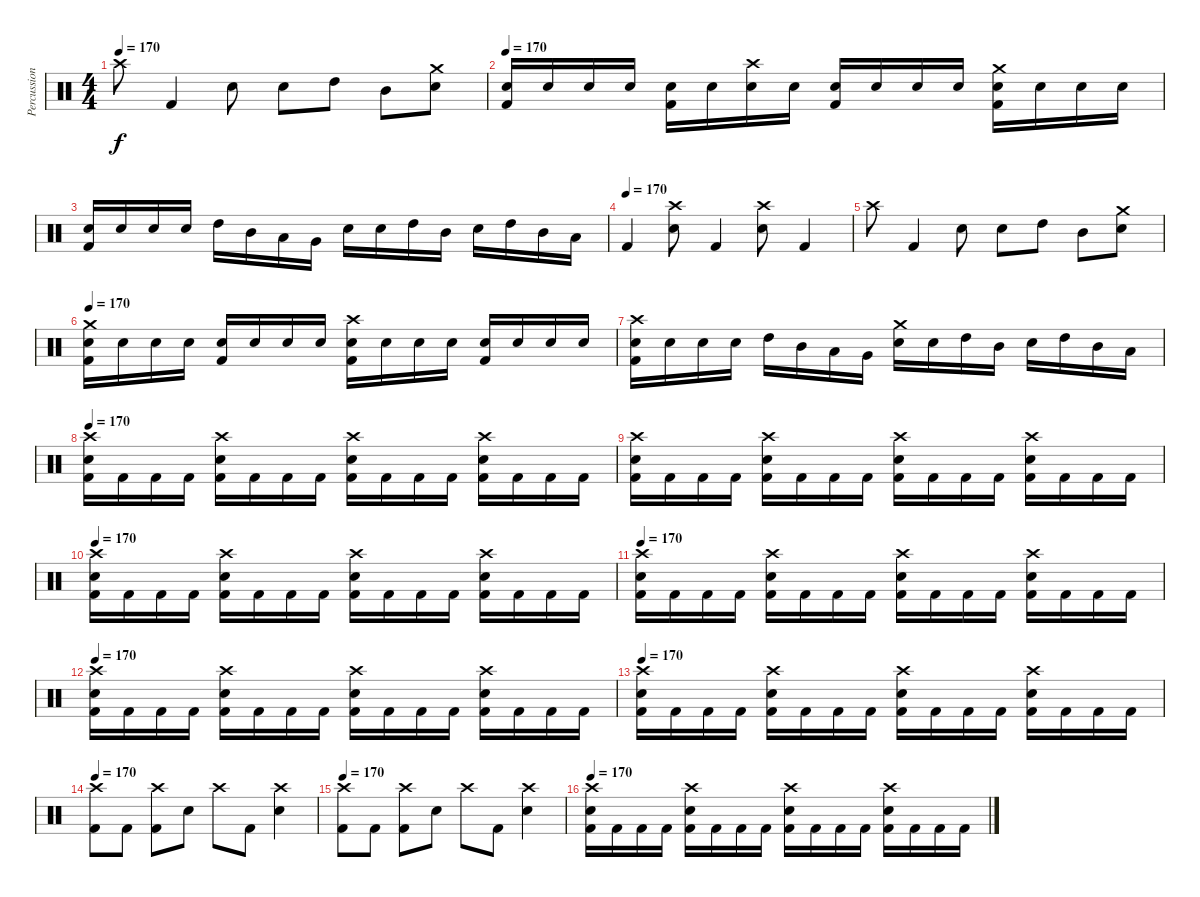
\track ("Percussion" "Percussion") {instrument percussion}
\staff {score}
\articulation defaults
\ts (4 4)
\tempo 170
\clef neutral
\ks c "Crash high (hit)".8{dy f} "Kick (hit) 2".4 "Electric Snare (hit)".8 "Electric Snare (hit)".8 "High Tom (hit)".8 "Mid Tom (hit)".8
("Crash medium (hit)" "Electric Snare (hit)").8 |
\tempo 170
("Electric Snare (hit)" "Kick (hit) 2").16 "Electric Snare (hit)".16 "Electric Snare (hit)".16 "Electric Snare (hit)".16 ("Electric Snare (hit)" "Kick (hit) 2").16 "Electric Snare (hit)".16 ("Crash high (hit)" "Electric Snare (hit)").16 "Electric Snare (hit)".16 ("Electric Snare (hit)" "Kick (hit) 2").16 "Electric Snare (hit)".16 "Electric Snare (hit)".16 "Electric Snare (hit)".16 ("Crash medium (hit)" "Electric Snare (hit)" "Kick (hit) 2").16 "Electric Snare (hit)".16 "Electric Snare (hit)".16 "Electric Snare (hit)".16 |
("Electric Snare (hit)" "Kick (hit) 2").16 "Electric Snare (hit)".16 "Electric Snare (hit)".16 "Electric Snare (hit)".16 "High Tom (hit)".16 "Mid Tom (hit)".16 "Low Tom (hit)".16 "Very Low Tom (hit)".16 "Electric Snare (hit)".16 "Electric Snare (hit)".16 "High Tom (hit)".16 "Mid Tom (hit)".16 "Electric Snare (hit)".16 "High Tom (hit)".16 "Mid Tom (hit)".16 "Low Tom (hit)".16 |
\tempo (170)
"Kick (hit) 2".4 ("Crash high (hit)" "Electric Snare (hit)").8 "Kick (hit) 2".4 ("Crash high (hit)" "Electric Snare (hit)").8 "Kick (hit) 2".4 |
"Crash high (hit)".8 "Kick (hit) 2".4 "Electric Snare (hit)".8 "Electric Snare (hit)".8 "High Tom (hit)".8 "Mid Tom (hit)".8 ("Crash medium (hit)" "Electric Snare (hit)").8 |
\tempo 170
("Crash medium (hit)" "Electric Snare (hit)" "Kick (hit) 2").16 "Electric Snare (hit)".16 "Electric Snare (hit)".16 "Electric Snare (hit)".16 ("Electric Snare (hit)" "Kick (hit) 2").16 "Electric Snare (hit)".16 "Electric Snare (hit)".16 "Electric Snare (hit)".16 ("Crash high (hit)" "Electric Snare (hit)" "Kick (hit) 2").16 "Electric Snare (hit)".16 "Electric Snare (hit)".16 "Electric Snare (hit)".16 ("Electric Snare (hit)" "Kick (hit) 2").16 "Electric Snare (hit)".16 "Electric Snare (hit)".16 "Electric Snare (hit)".16 |
("Crash high (hit)" "Electric Snare (hit)" "Kick (hit) 2").16 "Electric Snare (hit)".16 "Electric Snare (hit)".16 "Electric Snare (hit)".16 "High Tom (hit)".16 "Mid Tom (hit)".16 "Low Tom (hit)".16 "Very Low Tom (hit)".16 ("Crash medium (hit)" "Electric Snare (hit)").16 "Electric Snare (hit)".16 "High Tom (hit)".16 "Mid Tom (hit)".16 "Electric Snare (hit)".16 "High Tom (hit)".16 "Mid Tom (hit)".16 "Low Tom (hit)".16 |
\tempo 170
("Crash high (hit)" "Electric Snare (hit)" "Kick (hit) 2").16 "Kick (hit) 2".16 "Kick (hit) 2".16 "Kick (hit) 2".16 ("Crash high (hit)" "Electric Snare (hit)" "Kick (hit) 2").16 "Kick (hit) 2".16 "Kick (hit) 2".16 "Kick (hit) 2".16 ("Crash high (hit)" "Electric Snare (hit)" "Kick (hit) 2").16 "Kick (hit) 2".16 "Kick (hit) 2".16 "Kick (hit) 2".16 ("Crash high (hit)" "Electric Snare (hit)" "Kick (hit) 2").16 "Kick (hit) 2".16 "Kick (hit) 2".16 "Kick (hit) 2".16 |
("Crash high (hit)" "Electric Snare (hit)" "Kick (hit) 2").16 "Kick (hit) 2".16 "Kick (hit) 2".16 "Kick (hit) 2".16 ("Crash high (hit)" "Electric Snare (hit)" "Kick (hit) 2").16 "Kick (hit) 2".16 "Kick (hit) 2".16 "Kick (hit) 2".16 ("Crash high (hit)" "Electric Snare (hit)" "Kick (hit) 2").16 "Kick (hit) 2".16 "Kick (hit) 2".16 "Kick (hit) 2".16 ("Crash high (hit)" "Electric Snare (hit)" "Kick (hit) 2").16 "Kick (hit) 2".16 "Kick (hit) 2".16 "Kick (hit) 2".16 |
\tempo 170
("Crash high (hit)" "Electric Snare (hit)" "Kick (hit) 2").16 "Kick (hit) 2".16 "Kick (hit) 2".16 "Kick (hit) 2".16 ("Crash high (hit)" "Electric Snare (hit)" "Kick (hit) 2").16 "Kick (hit) 2".16 "Kick (hit) 2".16 "Kick (hit) 2".16 ("Crash high (hit)" "Electric Snare (hit)" "Kick (hit) 2").16 "Kick (hit) 2".16 "Kick (hit) 2".16 "Kick (hit) 2".16 ("Crash high (hit)" "Electric Snare (hit)" "Kick (hit) 2").16 "Kick (hit) 2".16 "Kick (hit) 2".16 "Kick (hit) 2".16 |
\tempo 170
("Crash high (hit)" "Electric Snare (hit)" "Kick (hit) 2").16 "Kick (hit) 2".16 "Kick (hit) 2".16 "Kick (hit) 2".16 ("Crash high (hit)" "Electric Snare (hit)" "Kick (hit) 2").16 "Kick (hit) 2".16 "Kick (hit) 2".16 "Kick (hit) 2".16 ("Crash high (hit)" "Electric Snare (hit)" "Kick (hit) 2").16 "Kick (hit) 2".16 "Kick (hit) 2".16 "Kick (hit) 2".16 ("Crash high (hit)" "Electric Snare (hit)" "Kick (hit) 2").16 "Kick (hit) 2".16 "Kick (hit) 2".16 "Kick (hit) 2".16 |
\tempo 170
("Crash high (hit)" "Electric Snare (hit)" "Kick (hit) 2").16 "Kick (hit) 2".16 "Kick (hit) 2".16 "Kick (hit) 2".16 ("Crash high (hit)" "Electric Snare (hit)" "Kick (hit) 2").16 "Kick (hit) 2".16 "Kick (hit) 2".16 "Kick (hit) 2".16 ("Crash high (hit)" "Electric Snare (hit)" "Kick (hit) 2").16 "Kick (hit) 2".16 "Kick (hit) 2".16 "Kick (hit) 2".16 ("Crash high (hit)" "Electric Snare (hit)" "Kick (hit) 2").16 "Kick (hit) 2".16 "Kick (hit) 2".16 "Kick (hit) 2".16 |
\tempo 170
("Crash high (hit)" "Electric Snare (hit)" "Kick (hit) 2").16 "Kick (hit) 2".16 "Kick (hit) 2".16 "Kick (hit) 2".16 ("Crash high (hit)" "Electric Snare (hit)" "Kick (hit) 2").16 "Kick (hit) 2".16 "Kick (hit) 2".16 "Kick (hit) 2".16 ("Crash high (hit)" "Electric Snare (hit)" "Kick (hit) 2").16 "Kick (hit) 2".16 "Kick (hit) 2".16 "Kick (hit) 2".16 ("Crash high (hit)" "Electric Snare (hit)" "Kick (hit) 2").16 "Kick (hit) 2".16 "Kick (hit) 2".16 "Kick (hit) 2".16 |
\tempo 170
("Crash high (hit)" "Kick (hit) 2").8 "Kick (hit) 2".8 ("Crash high (hit)" "Kick (hit) 2").8 "Electric Snare (hit)".8 "Crash high (hit)".8 "Kick (hit) 2".8 ("Crash high (hit)" "Electric Snare (hit)").4 |
\tempo 170
("Crash high (hit)" "Kick (hit) 2").8 "Kick (hit) 2".8 ("Crash high (hit)" "Kick (hit) 2").8 "Electric Snare (hit)".8 "Crash high (hit)".8 "Kick (hit) 2".8 ("Crash high (hit)" "Electric Snare (hit)").4 |
\tempo 170
("Crash high (hit)" "Electric Snare (hit)" "Kick (hit) 2").16 "Kick (hit) 2".16 "Kick (hit) 2".16 "Kick (hit) 2".16 ("Crash high (hit)" "Electric Snare (hit)" "Kick (hit) 2").16 "Kick (hit) 2".16 "Kick (hit) 2".16 "Kick (hit) 2".16 ("Crash high (hit)" "Electric Snare (hit)" "Kick (hit) 2").16 "Kick (hit) 2".16 "Kick (hit) 2".16 "Kick (hit) 2".16 ("Crash high (hit)" "Electric Snare (hit)" "Kick (hit) 2").16 "Kick (hit) 2".16 "Kick (hit) 2".16 "Kick (hit) 2".16
